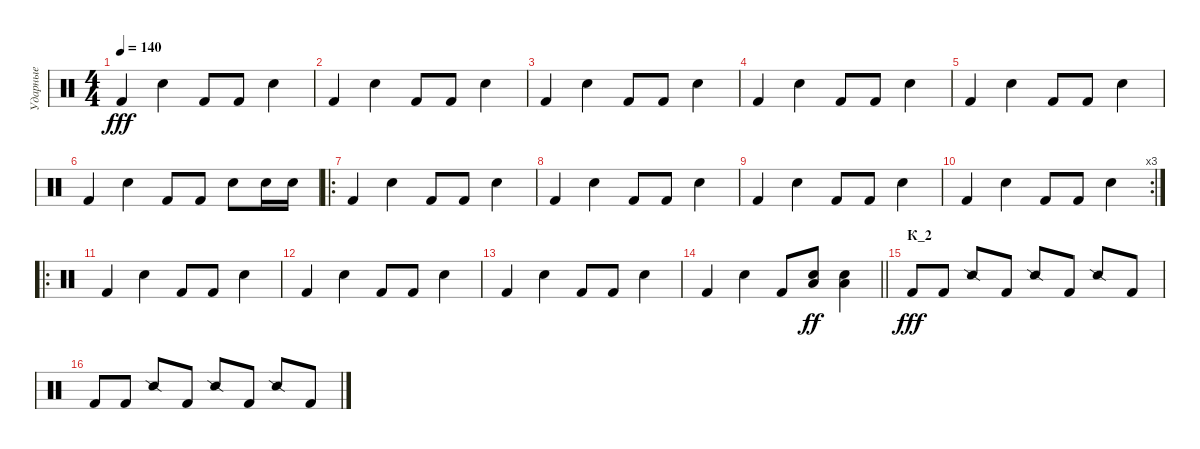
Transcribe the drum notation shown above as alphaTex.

\track ("Ударные" "Ударные") {instrument percussion}
\staff {score}
\articulation defaults
\ts (4 4)
\tempo 140
\clef neutral
\ks c "Kick (hit) 2".4{dy fff} "Electric Snare (hit)".4 "Kick (hit) 2".8 "Kick (hit) 2".8 "Electric Snare (hit)".4
|
"Kick (hit) 2".4 "Electric Snare (hit)".4 "Kick (hit) 2".8 "Kick (hit) 2".8 "Electric Snare (hit)".4 |
"Kick (hit) 2".4 "Electric Snare (hit)".4 "Kick (hit) 2".8 "Kick (hit) 2".8 "Electric Snare (hit)".4 |
"Kick (hit) 2".4 "Electric Snare (hit)".4 "Kick (hit) 2".8 "Kick (hit) 2".8 "Electric Snare (hit)".4 |
"Kick (hit) 2".4 "Electric Snare (hit)".4 "Kick (hit) 2".8 "Kick (hit) 2".8 "Electric Snare (hit)".4 |
"Kick (hit) 2".4 "Electric Snare (hit)".4 "Kick (hit) 2".8 "Kick (hit) 2".8 "Electric Snare (hit)".8 "Electric Snare (hit)".16 "Electric Snare (hit)".16 |
\ro "Kick (hit) 2".4 "Electric Snare (hit)".4 "Kick (hit) 2".8 "Kick (hit) 2".8 "Electric Snare (hit)".4
|
"Kick (hit) 2".4 "Electric Snare (hit)".4 "Kick (hit) 2".8 "Kick (hit) 2".8 "Electric Snare (hit)".4 |
"Kick (hit) 2".4 "Electric Snare (hit)".4 "Kick (hit) 2".8 "Kick (hit) 2".8 "Electric Snare (hit)".4 |
\rc 3 "Kick (hit) 2".4 "Electric Snare (hit)".4 "Kick (hit) 2".8 "Kick (hit) 2".8 "Electric Snare (hit)".4
|
\ro "Kick (hit) 2".4 "Electric Snare (hit)".4 "Kick (hit) 2".8 "Kick (hit) 2".8 "Electric Snare (hit)".4
|
"Kick (hit) 2".4 "Electric Snare (hit)".4 "Kick (hit) 2".8 "Kick (hit) 2".8 "Electric Snare (hit)".4 |
"Kick (hit) 2".4 "Electric Snare (hit)".4 "Kick (hit) 2".8 "Kick (hit) 2".8 "Electric Snare (hit)".4 |
\barLineRight lightlight "Kick (hit) 2".4 "Electric Snare (hit)".4 "Kick (hit) 2".8
("Low Tom (hit)" "Electric Snare (hit)").8{dy ff} ("Low Floor Tom (hit)" "Electric Snare (hit)").4 |
\section ("" "К_2")
"Kick (hit) 2".8{dy fff} "Kick (hit) 2".8 "Snare (side stick) 2".8 "Kick (hit) 2".8 "Snare (side stick) 2".8 "Kick (hit) 2".8 "Snare (side stick) 2".8 "Kick (hit) 2".8 |
"Kick (hit) 2".8 "Kick (hit) 2".8 "Snare (side stick) 2".8 "Kick (hit) 2".8 "Snare (side stick) 2".8 "Kick (hit) 2".8 "Snare (side stick) 2".8 "Kick (hit) 2".8
